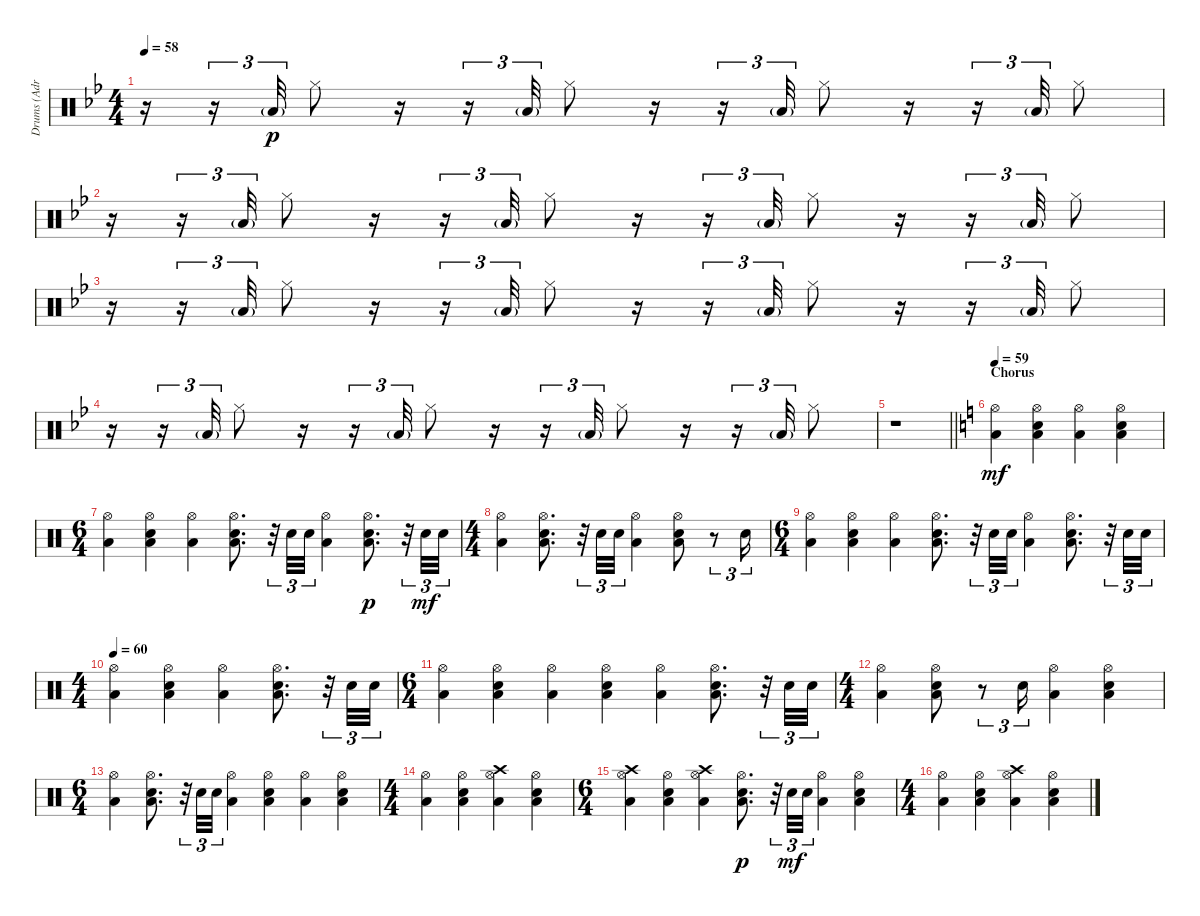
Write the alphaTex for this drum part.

\track ("Drums (Adrian Macintosh)" "Drums (Adr") {instrument percussion}
\staff {score}
\articulation defaults
\ts (4 4)
\tempo 58
\clef neutral
\ks gminor
r.16{dy p} r.16{tu (3 2)} "Low Floor Tom (hit)"{g}.32{tu (3 2)} "Hi-Hat (closed)".8 r.16 r.16{tu (3 2)} "Low Floor Tom (hit)"{g}.32{tu (3 2)} "Hi-Hat (closed)".8 r.16 r.16{tu (3 2)} "Low Floor Tom (hit)"{g}.32{tu (3 2)} "Hi-Hat (closed)".8 r.16 r.16{tu (3 2)} "Low Floor Tom (hit)"{g}.32{tu (3 2)} "Hi-Hat (closed)".8 |
r.16 r.16{tu (3 2)} "Low Floor Tom (hit)"{g}.32{tu (3 2)} "Hi-Hat (closed)".8 r.16 r.16{tu (3 2)} "Low Floor Tom (hit)"{g}.32{tu (3 2)} "Hi-Hat (closed)".8 r.16 r.16{tu (3 2)} "Low Floor Tom (hit)"{g}.32{tu (3 2)} "Hi-Hat (closed)".8 r.16 r.16{tu (3 2)} "Low Floor Tom (hit)"{g}.32{tu (3 2)} "Hi-Hat (closed)".8 |
r.16 r.16{tu (3 2)} "Low Floor Tom (hit)"{g}.32{tu (3 2)} "Hi-Hat (closed)".8 r.16 r.16{tu (3 2)} "Low Floor Tom (hit)"{g}.32{tu (3 2)} "Hi-Hat (closed)".8 r.16 r.16{tu (3 2)} "Low Floor Tom (hit)"{g}.32{tu (3 2)} "Hi-Hat (closed)".8 r.16 r.16{tu (3 2)} "Low Floor Tom (hit)"{g}.32{tu (3 2)} "Hi-Hat (closed)".8 |
r.16 r.16{tu (3 2)} "Low Floor Tom (hit)"{g}.32{tu (3 2)} "Hi-Hat (closed)".8 r.16 r.16{tu (3 2)} "Low Floor Tom (hit)"{g}.32{tu (3 2)} "Hi-Hat (closed)".8 r.16 r.16{tu (3 2)} "Low Floor Tom (hit)"{g}.32{tu (3 2)} "Hi-Hat (closed)".8 r.16 r.16{tu (3 2)} "Low Floor Tom (hit)"{g}.32{tu (3 2)} "Hi-Hat (closed)".8 |
\barLineRight lightlight
r.1 |
\section ("" "Chorus")
\tempo 59
\ks aminor
("Hi-Hat (open)" "Low Floor Tom (hit)").4{dy mf} ("Hi-Hat (open)" "Low Floor Tom (hit)" "Snare (hit) 2").4 ("Hi-Hat (open)" "Low Floor Tom (hit)").4 ("Hi-Hat (open)" "Low Floor Tom (hit)" "Snare (hit) 2").4 |
\ts (6 4)
("Hi-Hat (open)" "Low Floor Tom (hit)").4 ("Hi-Hat (open)" "Low Floor Tom (hit)" "Snare (hit) 2").4 ("Hi-Hat (open)" "Low Floor Tom (hit)").4 ("Hi-Hat (open)" "Low Floor Tom (hit)" "Snare (hit) 2").8{d} r.32{tu (3 2)} "Snare (hit) 2".32{tu (3 2)} "Snare (hit) 2".32{tu (3 2)} ("Hi-Hat (open)" "Low Floor Tom (hit)").4 ("Hi-Hat (open)" "Low Floor Tom (hit)" "Snare (hit) 2").8{d dy p} r.32{tu (3 2)} "Snare (hit) 2".32{tu (3 2) dy mf} "Snare (hit) 2".32{tu (3 2)} |
\ts (4 4)
("Hi-Hat (open)" "Low Floor Tom (hit)").4 ("Hi-Hat (open)" "Low Floor Tom (hit)" "Snare (hit) 2").8{d} r.32{tu (3 2)} "Snare (hit) 2".32{tu (3 2)} "Snare (hit) 2".32{tu (3 2)} ("Hi-Hat (open)" "Low Floor Tom (hit)").4 ("Hi-Hat (open)" "Low Floor Tom (hit)" "Snare (hit) 2").8 r.8{tu (3 2)} "Snare (hit) 2".16{tu (3 2)} |
\ts (6 4)
("Hi-Hat (open)" "Low Floor Tom (hit)").4 ("Hi-Hat (open)" "Low Floor Tom (hit)" "Snare (hit) 2").4 ("Hi-Hat (open)" "Low Floor Tom (hit)").4 ("Hi-Hat (open)" "Low Floor Tom (hit)" "Snare (hit) 2").8{d} r.32{tu (3 2)} "Snare (hit) 2".32{tu (3 2)} "Snare (hit) 2".32{tu (3 2)} ("Hi-Hat (open)" "Low Floor Tom (hit)").4 ("Hi-Hat (open)" "Low Floor Tom (hit)" "Snare (hit) 2").8{d} r.32{tu (3 2)} "Snare (hit) 2".32{tu (3 2)} "Snare (hit) 2".32{tu (3 2)} |
\ts (4 4)
\tempo 60
("Hi-Hat (open)" "Low Floor Tom (hit)").4 ("Hi-Hat (open)" "Low Floor Tom (hit)" "Snare (hit) 2").4 ("Hi-Hat (open)" "Low Floor Tom (hit)").4 ("Hi-Hat (open)" "Low Floor Tom (hit)" "Snare (hit) 2").8{d} r.32{tu (3 2)} "Snare (hit) 2".32{tu (3 2)} "Snare (hit) 2".32{tu (3 2)} |
\ts (6 4)
("Hi-Hat (open)" "Low Floor Tom (hit)").4 ("Hi-Hat (open)" "Low Floor Tom (hit)" "Snare (hit) 2").4 ("Hi-Hat (open)" "Low Floor Tom (hit)").4 ("Hi-Hat (open)" "Low Floor Tom (hit)" "Snare (hit) 2").4 ("Hi-Hat (open)" "Low Floor Tom (hit)").4 ("Hi-Hat (open)" "Low Floor Tom (hit)" "Snare (hit) 2").8{d} r.32{tu (3 2)} "Snare (hit) 2".32{tu (3 2)} "Snare (hit) 2".32{tu (3 2)} |
\ts (4 4)
("Hi-Hat (open)" "Low Floor Tom (hit)").4 ("Hi-Hat (open)" "Low Floor Tom (hit)" "Snare (hit) 2").8 r.8{tu (3 2)} "Snare (hit) 2".16{tu (3 2)} ("Hi-Hat (open)" "Low Floor Tom (hit)").4 ("Hi-Hat (open)" "Low Floor Tom (hit)" "Snare (hit) 2").4 |
\ts (6 4)
("Hi-Hat (open)" "Low Floor Tom (hit)").4 ("Hi-Hat (open)" "Low Floor Tom (hit)" "Snare (hit) 2").8{d} r.32{tu (3 2)} "Snare (hit) 2".32{tu (3 2)} "Snare (hit) 2".32{tu (3 2)} ("Hi-Hat (open)" "Low Floor Tom (hit)").4 ("Hi-Hat (open)" "Low Floor Tom (hit)" "Snare (hit) 2").4 ("Hi-Hat (open)" "Low Floor Tom (hit)").4 ("Hi-Hat (open)" "Low Floor Tom (hit)" "Snare (hit) 2").4 |
\ts (4 4)
("Hi-Hat (open)" "Low Floor Tom (hit)").4 ("Hi-Hat (open)" "Low Floor Tom (hit)" "Snare (hit) 2").4 ("Hi-Hat (open)" "Low Floor Tom (hit)" "Crash high (hit)").4 ("Hi-Hat (open)" "Low Floor Tom (hit)" "Snare (hit) 2").4 |
\ts (6 4)
("Hi-Hat (open)" "Low Floor Tom (hit)" "Crash high (hit)").4 ("Hi-Hat (open)" "Low Floor Tom (hit)" "Snare (hit) 2").4 ("Hi-Hat (open)" "Low Floor Tom (hit)" "Crash high (hit)").4 ("Hi-Hat (open)" "Low Floor Tom (hit)" "Snare (hit) 2").8{d dy p} r.32{tu (3 2)} "Snare (hit) 2".32{tu (3 2) dy mf} "Snare (hit) 2".32{tu (3 2)} ("Hi-Hat (open)" "Low Floor Tom (hit)").4 ("Hi-Hat (open)" "Low Floor Tom (hit)" "Snare (hit) 2").4 |
\ts (4 4)
("Hi-Hat (open)" "Low Floor Tom (hit)").4 ("Hi-Hat (open)" "Low Floor Tom (hit)" "Snare (hit) 2").4 ("Hi-Hat (open)" "Low Floor Tom (hit)" "Crash high (hit)").4 ("Hi-Hat (open)" "Low Floor Tom (hit)" "Snare (hit) 2").4
